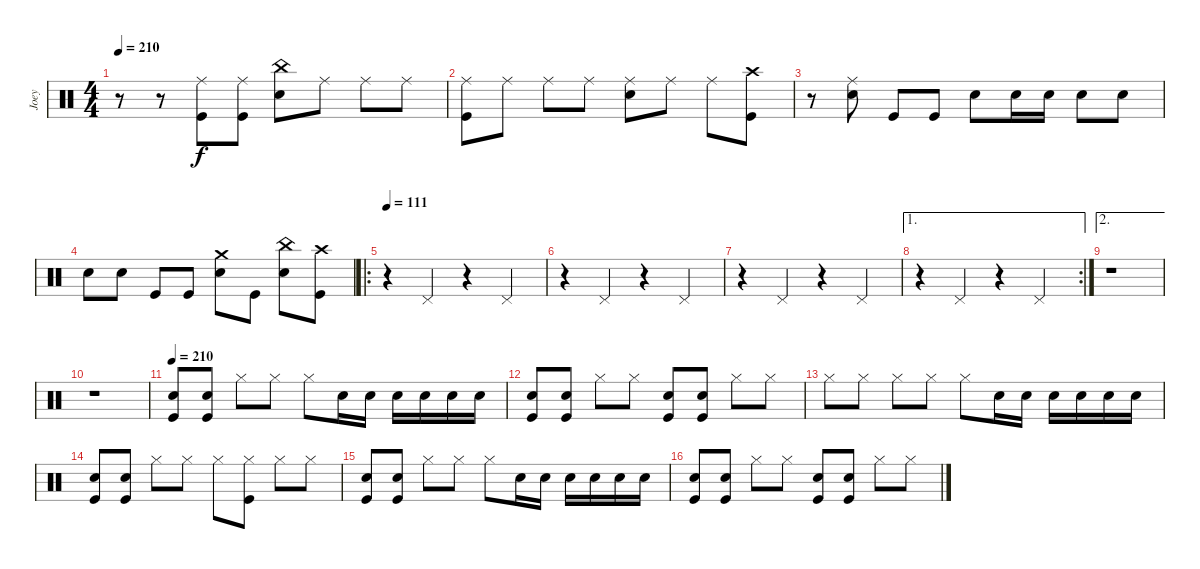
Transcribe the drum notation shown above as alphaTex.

\track ("Joey" "Joey") {instrument percussion}
\staff {score}
\articulation defaults
\ts (4 4)
\tempo 210
\clef neutral
\ks c
r.8{dy f} r.8 ("Kick (hit)" "Ride (middle)").8 ("Kick (hit)" "Ride (middle)").8 ("Snare (hit) 2" "China (hit)").8 "Ride (middle)".8 "Ride (middle)".8 "Ride (middle)".8 |
("Ride (middle)" "Kick (hit)").8 "Ride (middle)".8 "Ride (middle)".8 "Ride (middle)".8 ("Ride (middle)" "Snare (hit) 2").8 "Ride (middle)".8 "Ride (middle)".8 ("Crash high (hit)" "Kick (hit)").8 |
r.8 ("Snare (hit) 2" "Ride (middle)").8 "Kick (hit)".8 "Kick (hit)".8 "Snare (hit) 2".8 "Snare (hit) 2".16 "Snare (hit) 2".16 "Snare (hit) 2".8 "Snare (hit) 2".8 |
"Snare (hit) 2".8 "Snare (hit) 2".8 "Kick (hit)".8 "Kick (hit)".8 ("Snare (hit) 2" "Crash medium (hit)").8 "Kick (hit)".8 ("Snare (hit) 2" "China (hit)").8 ("Kick (hit)" "Crash high (hit)").8 |
\ro
\tempo 111
r.4 "Pedal Hi-Hat (hit)".4 r.4 "Pedal Hi-Hat (hit)".4 |
r.4 "Pedal Hi-Hat (hit)".4 r.4 "Pedal Hi-Hat (hit)".4 |
r.4 "Pedal Hi-Hat (hit)".4 r.4 "Pedal Hi-Hat (hit)".4 |
\ae 1
\rc 2
r.4 "Pedal Hi-Hat (hit)".4 r.4 "Pedal Hi-Hat (hit)".4 |
\ae 2
r.1 |
r.1 |
\tempo 210
("Snare (hit) 2" "Kick (hit)").8 ("Kick (hit)" "Snare (hit) 2").8 "Hi-Hat (closed)".8 "Hi-Hat (closed)".8 "Hi-Hat (closed)".8 "Snare (hit) 2".16 "Snare (hit) 2".16 "Snare (hit) 2".16 "Snare (hit) 2".16 "Snare (hit) 2".16 "Snare (hit) 2".16 |
("Snare (hit) 2" "Kick (hit)").8 ("Kick (hit)" "Snare (hit) 2").8 "Hi-Hat (closed)".8 "Hi-Hat (closed)".8 ("Snare (hit) 2" "Kick (hit)").8 ("Kick (hit)" "Snare (hit) 2").8 "Hi-Hat (closed)".8 "Hi-Hat (closed)".8 |
"Hi-Hat (closed)".8 "Hi-Hat (closed)".8 "Hi-Hat (closed)".8 "Hi-Hat (closed)".8 "Hi-Hat (closed)".8 "Snare (hit) 2".16 "Snare (hit) 2".16 "Snare (hit) 2".16 "Snare (hit) 2".16 "Snare (hit) 2".16 "Snare (hit) 2".16 |
("Snare (hit) 2" "Kick (hit)").8 ("Kick (hit)" "Snare (hit) 2").8 "Hi-Hat (closed)".8 "Hi-Hat (closed)".8 "Hi-Hat (closed)".8 ("Hi-Hat (closed)" "Kick (hit)").8 "Hi-Hat (closed)".8 "Hi-Hat (closed)".8 |
("Snare (hit) 2" "Kick (hit)").8 ("Kick (hit)" "Snare (hit) 2").8 "Hi-Hat (closed)".8 "Hi-Hat (closed)".8 "Hi-Hat (closed)".8 "Snare (hit) 2".16 "Snare (hit) 2".16 "Snare (hit) 2".16 "Snare (hit) 2".16 "Snare (hit) 2".16 "Snare (hit) 2".16 |
("Snare (hit) 2" "Kick (hit)").8 ("Kick (hit)" "Snare (hit) 2").8 "Hi-Hat (closed)".8 "Hi-Hat (closed)".8 ("Snare (hit) 2" "Kick (hit)").8 ("Kick (hit)" "Snare (hit) 2").8 "Hi-Hat (closed)".8 "Hi-Hat (closed)".8
